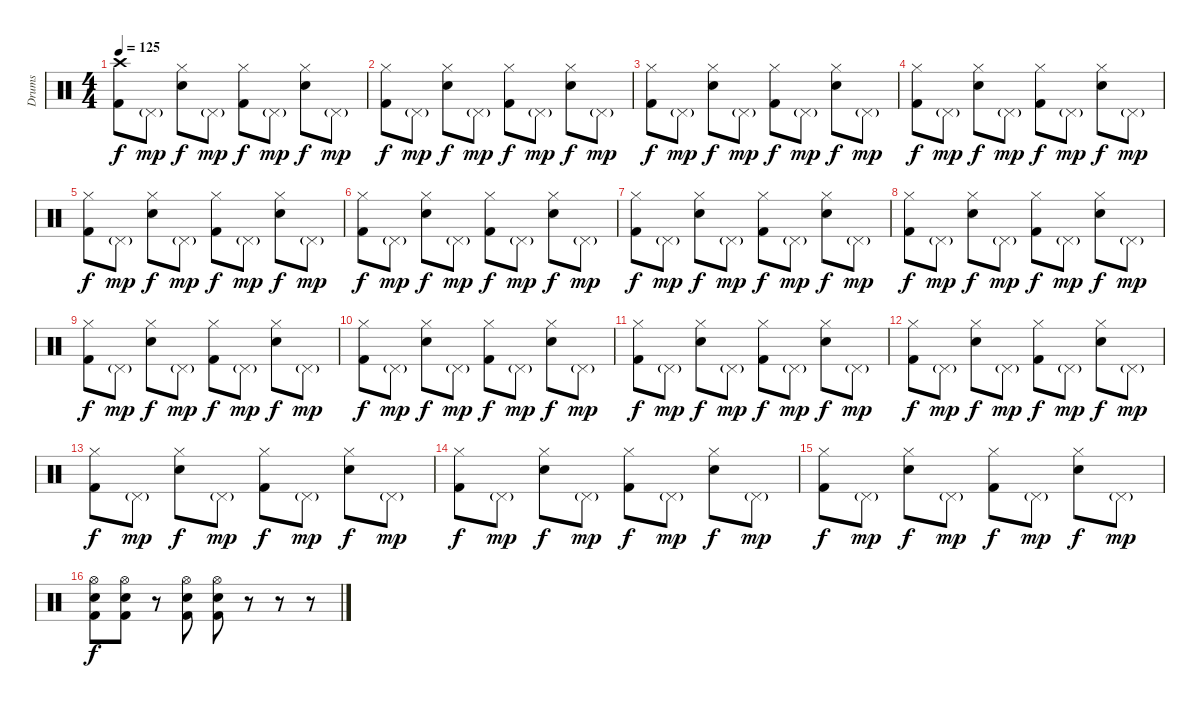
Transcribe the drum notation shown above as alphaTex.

\track ("Drums" "Drums") {instrument percussion}
\staff {score}
\articulation defaults
\ts (4 4)
\tempo 125
\clef neutral
\ks c
("Crash high (hit)" "Kick (hit) 2").8{dy f} "Pedal Hi-Hat (hit)"{g}.8{dy mp} ("Hi-Hat (closed)" "Snare (hit) 2").8{dy f} "Pedal Hi-Hat (hit)"{g}.8{dy mp} ("Hi-Hat (closed)" "Kick (hit) 2").8{dy f} "Pedal Hi-Hat (hit)"{g}.8{dy mp} ("Hi-Hat (closed)" "Snare (hit) 2").8{dy f} "Pedal Hi-Hat (hit)"{g}.8{dy mp} |
("Hi-Hat (closed)" "Kick (hit) 2").8{dy f} "Pedal Hi-Hat (hit)"{g}.8{dy mp} ("Hi-Hat (closed)" "Snare (hit) 2").8{dy f} "Pedal Hi-Hat (hit)"{g}.8{dy mp} ("Hi-Hat (closed)" "Kick (hit) 2").8{dy f} "Pedal Hi-Hat (hit)"{g}.8{dy mp} ("Hi-Hat (closed)" "Snare (hit) 2").8{dy f} "Pedal Hi-Hat (hit)"{g}.8{dy mp} |
("Hi-Hat (closed)" "Kick (hit) 2").8{dy f} "Pedal Hi-Hat (hit)"{g}.8{dy mp} ("Hi-Hat (closed)" "Snare (hit) 2").8{dy f} "Pedal Hi-Hat (hit)"{g}.8{dy mp} ("Hi-Hat (closed)" "Kick (hit) 2").8{dy f} "Pedal Hi-Hat (hit)"{g}.8{dy mp} ("Hi-Hat (closed)" "Snare (hit) 2").8{dy f} "Pedal Hi-Hat (hit)"{g}.8{dy mp} |
("Hi-Hat (closed)" "Kick (hit) 2").8{dy f} "Pedal Hi-Hat (hit)"{g}.8{dy mp} ("Hi-Hat (closed)" "Snare (hit) 2").8{dy f} "Pedal Hi-Hat (hit)"{g}.8{dy mp} ("Hi-Hat (closed)" "Kick (hit) 2").8{dy f} "Pedal Hi-Hat (hit)"{g}.8{dy mp} ("Hi-Hat (closed)" "Snare (hit) 2").8{dy f} "Pedal Hi-Hat (hit)"{g}.8{dy mp} |
("Hi-Hat (closed)" "Kick (hit) 2").8{dy f} "Pedal Hi-Hat (hit)"{g}.8{dy mp} ("Hi-Hat (closed)" "Snare (hit) 2").8{dy f} "Pedal Hi-Hat (hit)"{g}.8{dy mp} ("Hi-Hat (closed)" "Kick (hit) 2").8{dy f} "Pedal Hi-Hat (hit)"{g}.8{dy mp} ("Hi-Hat (closed)" "Snare (hit) 2").8{dy f} "Pedal Hi-Hat (hit)"{g}.8{dy mp} |
("Hi-Hat (closed)" "Kick (hit) 2").8{dy f} "Pedal Hi-Hat (hit)"{g}.8{dy mp} ("Hi-Hat (closed)" "Snare (hit) 2").8{dy f} "Pedal Hi-Hat (hit)"{g}.8{dy mp} ("Hi-Hat (closed)" "Kick (hit) 2").8{dy f} "Pedal Hi-Hat (hit)"{g}.8{dy mp} ("Hi-Hat (closed)" "Snare (hit) 2").8{dy f} "Pedal Hi-Hat (hit)"{g}.8{dy mp} |
("Hi-Hat (closed)" "Kick (hit) 2").8{dy f} "Pedal Hi-Hat (hit)"{g}.8{dy mp} ("Hi-Hat (closed)" "Snare (hit) 2").8{dy f} "Pedal Hi-Hat (hit)"{g}.8{dy mp} ("Hi-Hat (closed)" "Kick (hit) 2").8{dy f} "Pedal Hi-Hat (hit)"{g}.8{dy mp} ("Hi-Hat (closed)" "Snare (hit) 2").8{dy f} "Pedal Hi-Hat (hit)"{g}.8{dy mp} |
("Hi-Hat (closed)" "Kick (hit) 2").8{dy f} "Pedal Hi-Hat (hit)"{g}.8{dy mp} ("Hi-Hat (closed)" "Snare (hit) 2").8{dy f} "Pedal Hi-Hat (hit)"{g}.8{dy mp} ("Hi-Hat (closed)" "Kick (hit) 2").8{dy f} "Pedal Hi-Hat (hit)"{g}.8{dy mp} ("Hi-Hat (closed)" "Snare (hit) 2").8{dy f} "Pedal Hi-Hat (hit)"{g}.8{dy mp} |
("Hi-Hat (closed)" "Kick (hit) 2").8{dy f} "Pedal Hi-Hat (hit)"{g}.8{dy mp} ("Hi-Hat (closed)" "Snare (hit) 2").8{dy f} "Pedal Hi-Hat (hit)"{g}.8{dy mp} ("Hi-Hat (closed)" "Kick (hit) 2").8{dy f} "Pedal Hi-Hat (hit)"{g}.8{dy mp} ("Hi-Hat (closed)" "Snare (hit) 2").8{dy f} "Pedal Hi-Hat (hit)"{g}.8{dy mp} |
("Hi-Hat (closed)" "Kick (hit) 2").8{dy f} "Pedal Hi-Hat (hit)"{g}.8{dy mp} ("Hi-Hat (closed)" "Snare (hit) 2").8{dy f} "Pedal Hi-Hat (hit)"{g}.8{dy mp} ("Hi-Hat (closed)" "Kick (hit) 2").8{dy f} "Pedal Hi-Hat (hit)"{g}.8{dy mp} ("Hi-Hat (closed)" "Snare (hit) 2").8{dy f} "Pedal Hi-Hat (hit)"{g}.8{dy mp} |
("Hi-Hat (closed)" "Kick (hit) 2").8{dy f} "Pedal Hi-Hat (hit)"{g}.8{dy mp} ("Hi-Hat (closed)" "Snare (hit) 2").8{dy f} "Pedal Hi-Hat (hit)"{g}.8{dy mp} ("Hi-Hat (closed)" "Kick (hit) 2").8{dy f} "Pedal Hi-Hat (hit)"{g}.8{dy mp} ("Hi-Hat (closed)" "Snare (hit) 2").8{dy f} "Pedal Hi-Hat (hit)"{g}.8{dy mp} |
("Hi-Hat (closed)" "Kick (hit) 2").8{dy f} "Pedal Hi-Hat (hit)"{g}.8{dy mp} ("Hi-Hat (closed)" "Snare (hit) 2").8{dy f} "Pedal Hi-Hat (hit)"{g}.8{dy mp} ("Hi-Hat (closed)" "Kick (hit) 2").8{dy f} "Pedal Hi-Hat (hit)"{g}.8{dy mp} ("Hi-Hat (closed)" "Snare (hit) 2").8{dy f} "Pedal Hi-Hat (hit)"{g}.8{dy mp} |
("Hi-Hat (closed)" "Kick (hit) 2").8{dy f} "Pedal Hi-Hat (hit)"{g}.8{dy mp} ("Hi-Hat (closed)" "Snare (hit) 2").8{dy f} "Pedal Hi-Hat (hit)"{g}.8{dy mp} ("Hi-Hat (closed)" "Kick (hit) 2").8{dy f} "Pedal Hi-Hat (hit)"{g}.8{dy mp} ("Hi-Hat (closed)" "Snare (hit) 2").8{dy f} "Pedal Hi-Hat (hit)"{g}.8{dy mp} |
("Hi-Hat (closed)" "Kick (hit) 2").8{dy f} "Pedal Hi-Hat (hit)"{g}.8{dy mp} ("Hi-Hat (closed)" "Snare (hit) 2").8{dy f} "Pedal Hi-Hat (hit)"{g}.8{dy mp} ("Hi-Hat (closed)" "Kick (hit) 2").8{dy f} "Pedal Hi-Hat (hit)"{g}.8{dy mp} ("Hi-Hat (closed)" "Snare (hit) 2").8{dy f} "Pedal Hi-Hat (hit)"{g}.8{dy mp} |
("Hi-Hat (closed)" "Kick (hit) 2").8{dy f} "Pedal Hi-Hat (hit)"{g}.8{dy mp} ("Hi-Hat (closed)" "Snare (hit) 2").8{dy f} "Pedal Hi-Hat (hit)"{g}.8{dy mp} ("Hi-Hat (closed)" "Kick (hit) 2").8{dy f} "Pedal Hi-Hat (hit)"{g}.8{dy mp} ("Hi-Hat (closed)" "Snare (hit) 2").8{dy f} "Pedal Hi-Hat (hit)"{g}.8{dy mp} |
("Snare (hit) 2" "Hi-Hat (open)" "Kick (hit) 2").8{dy f} ("Snare (hit) 2" "Hi-Hat (open)" "Kick (hit) 2").8 r.8 ("Snare (hit) 2" "Hi-Hat (open)" "Kick (hit) 2").8 ("Snare (hit) 2" "Hi-Hat (open)" "Kick (hit) 2").8 r.8 r.8 r.8
